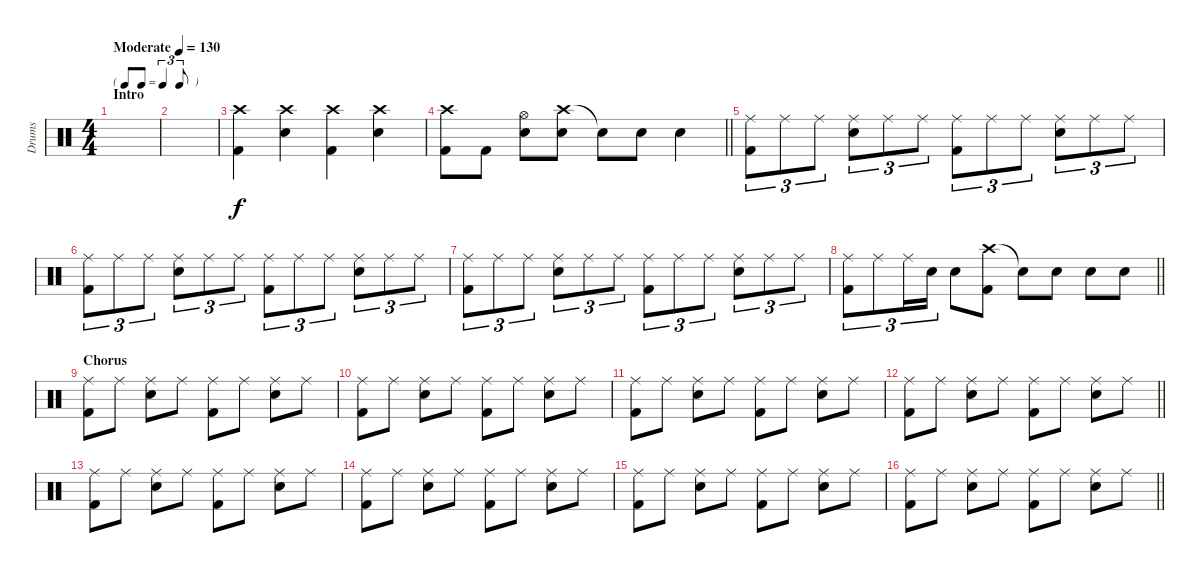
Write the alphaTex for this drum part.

\track ("Drums" "Drums") {instrument percussion}
\staff {score}
\articulation defaults
\ts (4 4)
\tf triplet8th
\section ("" "Intro")
\tempo (130 "Moderate")
\clef neutral
\ks c
|
|
("Crash high (hit)" "Kick (hit) 2").4 ("Crash high (hit)" "Snare (hit) 2").4 ("Crash high (hit)" "Kick (hit) 2").4 ("Crash high (hit)" "Snare (hit) 2").4 |
\barLineRight lightlight
("Crash high (hit)" "Kick (hit) 2").8 "Kick (hit) 2".8 ("Hi-Hat (open)" "Snare (hit) 2").8 ("Crash high (hit)" "Snare (hit) 2").8 "Snare (hit)"{t}.8 "Snare (hit) 2".8 "Snare (hit) 2".4 |
("Ride (middle)" "Kick (hit) 2").8{tu (3 2)} "Ride (middle)".8{tu (3 2)} "Ride (middle)".8{tu (3 2)} ("Ride (middle)" "Snare (hit) 2").8{tu (3 2)} "Ride (middle)".8{tu (3 2)} "Ride (middle)".8{tu (3 2)} ("Ride (middle)" "Kick (hit) 2").8{tu (3 2)} "Ride (middle)".8{tu (3 2)} "Ride (middle)".8{tu (3 2)} ("Ride (middle)" "Snare (hit) 2").8{tu (3 2)} "Ride (middle)".8{tu (3 2)} "Ride (middle)".8{tu (3 2)} |
("Ride (middle)" "Kick (hit) 2").8{tu (3 2)} "Ride (middle)".8{tu (3 2)} "Ride (middle)".8{tu (3 2)} ("Ride (middle)" "Snare (hit) 2").8{tu (3 2)} "Ride (middle)".8{tu (3 2)} "Ride (middle)".8{tu (3 2)} ("Ride (middle)" "Kick (hit) 2").8{tu (3 2)} "Ride (middle)".8{tu (3 2)} "Ride (middle)".8{tu (3 2)} ("Ride (middle)" "Snare (hit) 2").8{tu (3 2)} "Ride (middle)".8{tu (3 2)} "Ride (middle)".8{tu (3 2)} |
("Ride (middle)" "Kick (hit) 2").8{tu (3 2)} "Ride (middle)".8{tu (3 2)} "Ride (middle)".8{tu (3 2)} ("Ride (middle)" "Snare (hit) 2").8{tu (3 2)} "Ride (middle)".8{tu (3 2)} "Ride (middle)".8{tu (3 2)} ("Ride (middle)" "Kick (hit) 2").8{tu (3 2)} "Ride (middle)".8{tu (3 2)} "Ride (middle)".8{tu (3 2)} ("Ride (middle)" "Snare (hit) 2").8{tu (3 2)} "Ride (middle)".8{tu (3 2)} "Ride (middle)".8{tu (3 2)} |
\barLineRight lightlight
("Ride (middle)" "Kick (hit) 2").8{tu (3 2)} "Ride (middle)".8{tu (3 2)} "Ride (middle)".16{tu (3 2)} "Snare (hit) 2".16{tu (3 2)} "Snare (hit) 2".8 ("Crash high (hit)" "Kick (hit) 2").8 "Snare (hit)"{t}.8 "Snare (hit) 2".8 "Snare (hit) 2".8 "Snare (hit) 2".8 |
\section ("" "Chorus")
("Ride (middle)" "Kick (hit) 2").8 "Ride (middle)".8 ("Ride (middle)" "Snare (hit) 2").8 "Ride (middle)".8 ("Ride (middle)" "Kick (hit) 2").8 "Ride (middle)".8 ("Ride (middle)" "Snare (hit) 2").8 "Ride (middle)".8 |
("Ride (middle)" "Kick (hit) 2").8 "Ride (middle)".8 ("Ride (middle)" "Snare (hit) 2").8 "Ride (middle)".8 ("Ride (middle)" "Kick (hit) 2").8 "Ride (middle)".8 ("Ride (middle)" "Snare (hit) 2").8 "Ride (middle)".8 |
("Ride (middle)" "Kick (hit) 2").8 "Ride (middle)".8 ("Ride (middle)" "Snare (hit) 2").8 "Ride (middle)".8 ("Ride (middle)" "Kick (hit) 2").8 "Ride (middle)".8 ("Ride (middle)" "Snare (hit) 2").8 "Ride (middle)".8 |
\barLineRight lightlight
("Ride (middle)" "Kick (hit) 2").8 "Ride (middle)".8 ("Ride (middle)" "Snare (hit) 2").8 "Ride (middle)".8 ("Ride (middle)" "Kick (hit) 2").8 "Ride (middle)".8 ("Ride (middle)" "Snare (hit) 2").8 "Ride (middle)".8 |
("Ride (middle)" "Kick (hit) 2").8 "Ride (middle)".8 ("Ride (middle)" "Snare (hit) 2").8 "Ride (middle)".8 ("Ride (middle)" "Kick (hit) 2").8 "Ride (middle)".8 ("Ride (middle)" "Snare (hit) 2").8 "Ride (middle)".8 |
("Ride (middle)" "Kick (hit) 2").8 "Ride (middle)".8 ("Ride (middle)" "Snare (hit) 2").8 "Ride (middle)".8 ("Ride (middle)" "Kick (hit) 2").8 "Ride (middle)".8 ("Ride (middle)" "Snare (hit) 2").8 "Ride (middle)".8 |
("Ride (middle)" "Kick (hit) 2").8 "Ride (middle)".8 ("Ride (middle)" "Snare (hit) 2").8 "Ride (middle)".8 ("Ride (middle)" "Kick (hit) 2").8 "Ride (middle)".8 ("Ride (middle)" "Snare (hit) 2").8 "Ride (middle)".8 |
\barLineRight lightlight
("Ride (middle)" "Kick (hit) 2").8 "Ride (middle)".8 ("Ride (middle)" "Snare (hit) 2").8 "Ride (middle)".8 ("Ride (middle)" "Kick (hit) 2").8 "Ride (middle)".8 ("Ride (middle)" "Snare (hit) 2").8 "Ride (middle)".8
